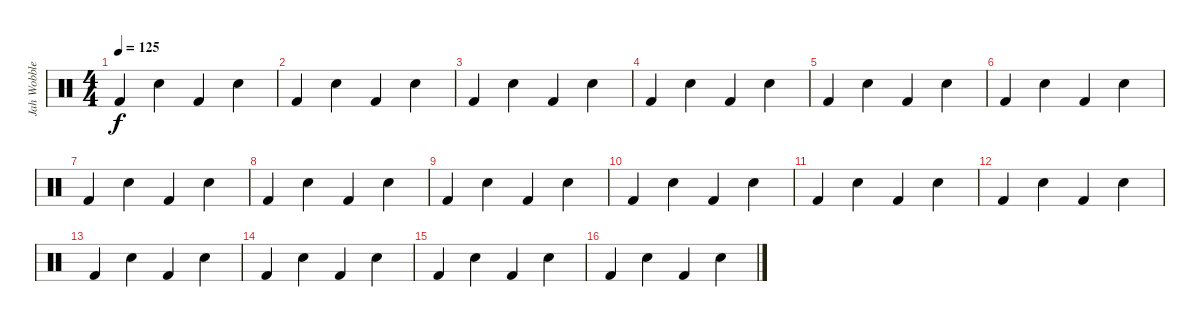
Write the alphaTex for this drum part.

\track ("Jah Wobble  (drums)" "Jah Wobble") {instrument percussion}
\staff {score}
\articulation defaults
\ts (4 4)
\tempo 125
\clef neutral
\ks c "Kick (hit) 2".4{dy f} "Electric Snare (hit)".4 "Kick (hit) 2".4 "Electric Snare (hit)".4
|
"Kick (hit) 2".4 "Electric Snare (hit)".4 "Kick (hit) 2".4 "Electric Snare (hit)".4 |
"Kick (hit) 2".4 "Electric Snare (hit)".4 "Kick (hit) 2".4 "Electric Snare (hit)".4 |
"Kick (hit) 2".4 "Electric Snare (hit)".4 "Kick (hit) 2".4 "Electric Snare (hit)".4 |
"Kick (hit) 2".4 "Electric Snare (hit)".4 "Kick (hit) 2".4 "Electric Snare (hit)".4 |
"Kick (hit) 2".4 "Electric Snare (hit)".4 "Kick (hit) 2".4 "Electric Snare (hit)".4 |
"Kick (hit) 2".4 "Electric Snare (hit)".4 "Kick (hit) 2".4 "Electric Snare (hit)".4 |
"Kick (hit) 2".4 "Electric Snare (hit)".4 "Kick (hit) 2".4 "Electric Snare (hit)".4 |
"Kick (hit) 2".4 "Electric Snare (hit)".4 "Kick (hit) 2".4 "Electric Snare (hit)".4 |
"Kick (hit) 2".4 "Electric Snare (hit)".4 "Kick (hit) 2".4 "Electric Snare (hit)".4 |
"Kick (hit) 2".4 "Electric Snare (hit)".4 "Kick (hit) 2".4 "Electric Snare (hit)".4 |
"Kick (hit) 2".4 "Electric Snare (hit)".4 "Kick (hit) 2".4 "Electric Snare (hit)".4 |
"Kick (hit) 2".4 "Electric Snare (hit)".4 "Kick (hit) 2".4 "Electric Snare (hit)".4 |
"Kick (hit) 2".4 "Electric Snare (hit)".4 "Kick (hit) 2".4 "Electric Snare (hit)".4 |
"Kick (hit) 2".4 "Electric Snare (hit)".4 "Kick (hit) 2".4 "Electric Snare (hit)".4 |
"Kick (hit) 2".4 "Electric Snare (hit)".4 "Kick (hit) 2".4 "Electric Snare (hit)".4
